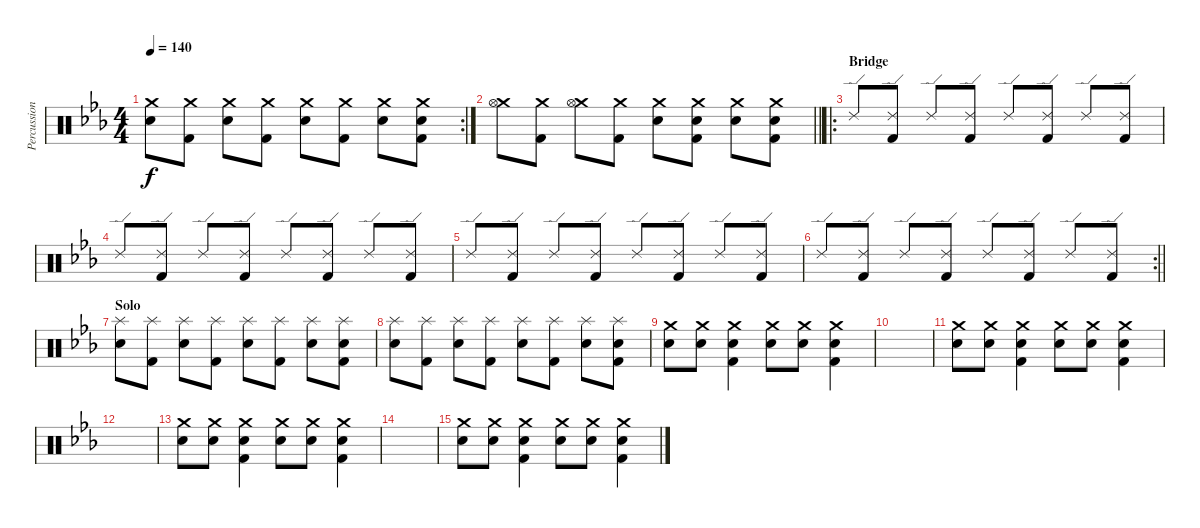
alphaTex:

\track ("Percussion (John)" "Percussion") {instrument percussion}
\staff {score}
\articulation defaults
\rc 2
\ts (4 4)
\tempo 140
\clef neutral
\ks cminor
("Crash medium (hit)" "Electric Snare (hit)").8{dy f} ("Crash medium (hit)" "Kick (hit) 2").8 ("Crash medium (hit)" "Electric Snare (hit)").8 ("Crash medium (hit)" "Kick (hit) 2").8 ("Crash medium (hit)" "Electric Snare (hit)").8 ("Crash medium (hit)" "Kick (hit) 2").8 ("Crash medium (hit)" "Electric Snare (hit)").8 ("Crash medium (hit)" "Electric Snare (hit)" "Kick (hit) 2").8 |
\barLineRight lightlight
("Crash medium (hit)" "Hi-Hat (open)").8 ("Crash medium (hit)" "Kick (hit) 2").8 ("Crash medium (hit)" "Hi-Hat (open)").8 ("Crash medium (hit)" "Kick (hit) 2").8 ("Crash medium (hit)" "Electric Snare (hit)").8 ("Crash medium (hit)" "Electric Snare (hit)" "Kick (hit) 2").8 ("Crash medium (hit)" "Electric Snare (hit)").8 ("Crash medium (hit)" "Electric Snare (hit)" "Kick (hit) 2").8 |
\ro
\section ("" "Bridge")
"Ride (edge) 2".8 ("Ride (edge) 2" "Kick (hit) 2").8 "Ride (edge) 2".8 ("Ride (edge) 2" "Kick (hit) 2").8 "Ride (edge) 2".8 ("Ride (edge) 2" "Kick (hit) 2").8 "Ride (edge) 2".8 ("Ride (edge) 2" "Kick (hit) 2").8 |
"Ride (edge) 2".8 ("Ride (edge) 2" "Kick (hit) 2").8 "Ride (edge) 2".8 ("Ride (edge) 2" "Kick (hit) 2").8 "Ride (edge) 2".8 ("Ride (edge) 2" "Kick (hit) 2").8 "Ride (edge) 2".8 ("Ride (edge) 2" "Kick (hit) 2").8 |
"Ride (edge) 2".8 ("Ride (edge) 2" "Kick (hit) 2").8 "Ride (edge) 2".8 ("Ride (edge) 2" "Kick (hit) 2").8 "Ride (edge) 2".8 ("Ride (edge) 2" "Kick (hit) 2").8 "Ride (edge) 2".8 ("Ride (edge) 2" "Kick (hit) 2").8 |
\rc 2
\barLineRight lightlight "Ride (edge) 2".8
("Ride (edge) 2" "Kick (hit) 2").8 "Ride (edge) 2".8 ("Ride (edge) 2" "Kick (hit) 2").8 "Ride (edge) 2".8 ("Ride (edge) 2" "Kick (hit) 2").8 "Ride (edge) 2".8 ("Ride (edge) 2" "Kick (hit) 2").8 |
\section ("" "Solo")
("Splash (hit)" "Electric Snare (hit)").8 ("Splash (hit)" "Kick (hit) 2").8 ("Splash (hit)" "Electric Snare (hit)").8 ("Splash (hit)" "Kick (hit) 2").8 ("Splash (hit)" "Electric Snare (hit)").8 ("Splash (hit)" "Kick (hit) 2").8 ("Splash (hit)" "Electric Snare (hit)").8 ("Splash (hit)" "Electric Snare (hit)" "Kick (hit) 2").8 |
("Splash (hit)" "Electric Snare (hit)").8 ("Splash (hit)" "Kick (hit) 2").8 ("Splash (hit)" "Electric Snare (hit)").8 ("Splash (hit)" "Kick (hit) 2").8 ("Splash (hit)" "Electric Snare (hit)").8 ("Splash (hit)" "Kick (hit) 2").8 ("Splash (hit)" "Electric Snare (hit)").8 ("Splash (hit)" "Electric Snare (hit)" "Kick (hit) 2").8 |
("Crash medium (hit)" "Electric Snare (hit)").8 ("Crash medium (hit)" "Electric Snare (hit)").8 ("Crash medium (hit)" "Electric Snare (hit)" "Kick (hit) 2").4 ("Crash medium (hit)" "Electric Snare (hit)").8 ("Crash medium (hit)" "Electric Snare (hit)").8 ("Crash medium (hit)" "Electric Snare (hit)" "Kick (hit) 2").4 |
|
("Crash medium (hit)" "Electric Snare (hit)").8 ("Crash medium (hit)" "Electric Snare (hit)").8 ("Crash medium (hit)" "Electric Snare (hit)" "Kick (hit) 2").4 ("Crash medium (hit)" "Electric Snare (hit)").8 ("Crash medium (hit)" "Electric Snare (hit)").8 ("Crash medium (hit)" "Electric Snare (hit)" "Kick (hit) 2").4 |
|
("Crash medium (hit)" "Electric Snare (hit)").8 ("Crash medium (hit)" "Electric Snare (hit)").8 ("Crash medium (hit)" "Electric Snare (hit)" "Kick (hit) 2").4 ("Crash medium (hit)" "Electric Snare (hit)").8 ("Crash medium (hit)" "Electric Snare (hit)").8 ("Crash medium (hit)" "Electric Snare (hit)" "Kick (hit) 2").4 |
|
("Crash medium (hit)" "Electric Snare (hit)").8 ("Crash medium (hit)" "Electric Snare (hit)").8 ("Crash medium (hit)" "Electric Snare (hit)" "Kick (hit) 2").4 ("Crash medium (hit)" "Electric Snare (hit)").8 ("Crash medium (hit)" "Electric Snare (hit)").8 ("Crash medium (hit)" "Electric Snare (hit)" "Kick (hit) 2").4
